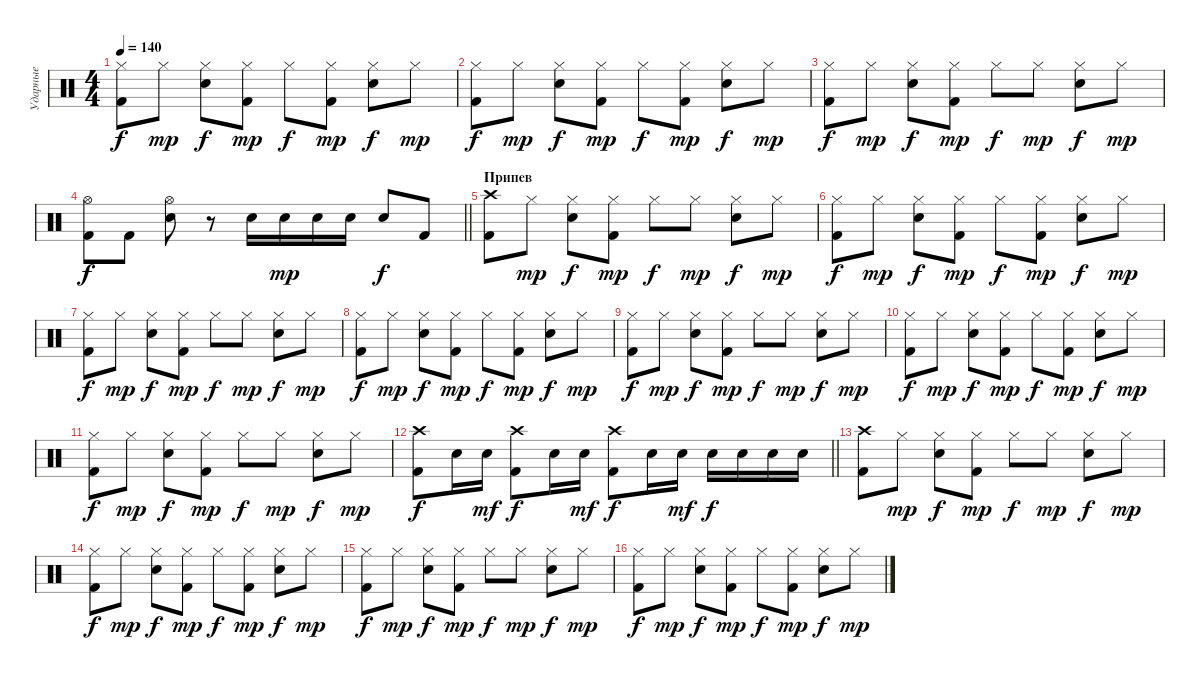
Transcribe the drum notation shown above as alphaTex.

\track ("Ударные" "Ударные") {instrument percussion}
\staff {score}
\articulation defaults
\ts (4 4)
\tempo 140
\clef neutral
\ks c
("Hi-Hat (closed)" "Kick (hit) 2").8{dy f} "Hi-Hat (closed)".8{dy mp} ("Hi-Hat (closed)" "Snare (hit) 2").8{dy f} ("Hi-Hat (closed)" "Kick (hit) 2").8{dy mp} "Hi-Hat (closed)".8{dy f} ("Hi-Hat (closed)" "Kick (hit) 2").8{dy mp} ("Hi-Hat (closed)" "Snare (hit) 2").8{dy f} "Hi-Hat (closed)".8{dy mp} |
("Hi-Hat (closed)" "Kick (hit) 2").8{dy f} "Hi-Hat (closed)".8{dy mp} ("Hi-Hat (closed)" "Snare (hit) 2").8{dy f} ("Hi-Hat (closed)" "Kick (hit) 2").8{dy mp} "Hi-Hat (closed)".8{dy f} ("Hi-Hat (closed)" "Kick (hit) 2").8{dy mp} ("Hi-Hat (closed)" "Snare (hit) 2").8{dy f} "Hi-Hat (closed)".8{dy mp} |
("Hi-Hat (closed)" "Kick (hit) 2").8{dy f} "Hi-Hat (closed)".8{dy mp} ("Hi-Hat (closed)" "Snare (hit) 2").8{dy f} ("Hi-Hat (closed)" "Kick (hit) 2").8{dy mp} "Hi-Hat (closed)".8{dy f} "Hi-Hat (closed)".8{dy mp} ("Hi-Hat (closed)" "Snare (hit) 2").8{dy f} "Hi-Hat (closed)".8{dy mp} |
\barLineRight lightlight
("Hi-Hat (open)" "Kick (hit) 2").8{dy f} "Kick (hit) 2".8 ("Hi-Hat (open)" "Snare (hit) 2").8 r.8 "Snare (hit) 2".16 "Snare (hit) 2".16{dy mp} "Snare (hit) 2".16 "Snare (hit) 2".16 "Snare (hit) 2".8{dy f} "Kick (hit) 2".8 |
\section ("" "Припев")
("Crash high (hit)" "Kick (hit) 2").8 "Hi-Hat (closed)".8{dy mp} ("Hi-Hat (closed)" "Snare (hit) 2").8{dy f} ("Hi-Hat (closed)" "Kick (hit) 2").8{dy mp} "Hi-Hat (closed)".8{dy f} "Hi-Hat (closed)".8{dy mp} ("Hi-Hat (closed)" "Snare (hit) 2").8{dy f} "Hi-Hat (closed)".8{dy mp} |
("Hi-Hat (closed)" "Kick (hit) 2").8{dy f} "Hi-Hat (closed)".8{dy mp} ("Hi-Hat (closed)" "Snare (hit) 2").8{dy f} ("Hi-Hat (closed)" "Kick (hit) 2").8{dy mp} "Hi-Hat (closed)".8{dy f} ("Hi-Hat (closed)" "Kick (hit) 2").8{dy mp} ("Hi-Hat (closed)" "Snare (hit) 2").8{dy f} "Hi-Hat (closed)".8{dy mp} |
("Hi-Hat (closed)" "Kick (hit) 2").8{dy f} "Hi-Hat (closed)".8{dy mp} ("Hi-Hat (closed)" "Snare (hit) 2").8{dy f} ("Hi-Hat (closed)" "Kick (hit) 2").8{dy mp} "Hi-Hat (closed)".8{dy f} "Hi-Hat (closed)".8{dy mp} ("Hi-Hat (closed)" "Snare (hit) 2").8{dy f} "Hi-Hat (closed)".8{dy mp} |
("Hi-Hat (closed)" "Kick (hit) 2").8{dy f} "Hi-Hat (closed)".8{dy mp} ("Hi-Hat (closed)" "Snare (hit) 2").8{dy f} ("Hi-Hat (closed)" "Kick (hit) 2").8{dy mp} "Hi-Hat (closed)".8{dy f} ("Hi-Hat (closed)" "Kick (hit) 2").8{dy mp} ("Hi-Hat (closed)" "Snare (hit) 2").8{dy f} "Hi-Hat (closed)".8{dy mp} |
("Hi-Hat (closed)" "Kick (hit) 2").8{dy f} "Hi-Hat (closed)".8{dy mp} ("Hi-Hat (closed)" "Snare (hit) 2").8{dy f} ("Hi-Hat (closed)" "Kick (hit) 2").8{dy mp} "Hi-Hat (closed)".8{dy f} "Hi-Hat (closed)".8{dy mp} ("Hi-Hat (closed)" "Snare (hit) 2").8{dy f} "Hi-Hat (closed)".8{dy mp} |
("Hi-Hat (closed)" "Kick (hit) 2").8{dy f} "Hi-Hat (closed)".8{dy mp} ("Hi-Hat (closed)" "Snare (hit) 2").8{dy f} ("Hi-Hat (closed)" "Kick (hit) 2").8{dy mp} "Hi-Hat (closed)".8{dy f} ("Hi-Hat (closed)" "Kick (hit) 2").8{dy mp} ("Hi-Hat (closed)" "Snare (hit) 2").8{dy f} "Hi-Hat (closed)".8{dy mp} |
("Hi-Hat (closed)" "Kick (hit) 2").8{dy f} "Hi-Hat (closed)".8{dy mp} ("Hi-Hat (closed)" "Snare (hit) 2").8{dy f} ("Hi-Hat (closed)" "Kick (hit) 2").8{dy mp} "Hi-Hat (closed)".8{dy f} "Hi-Hat (closed)".8{dy mp} ("Hi-Hat (closed)" "Snare (hit) 2").8{dy f} "Hi-Hat (closed)".8{dy mp} |
\barLineRight lightlight
("Crash high (hit)" "Kick (hit) 2").8{dy f} "Snare (hit) 2".16 "Snare (hit) 2".16{dy mf} ("Crash high (hit)" "Kick (hit) 2").8{dy f} "Snare (hit) 2".16 "Snare (hit) 2".16{dy mf} ("Crash high (hit)" "Kick (hit) 2").8{dy f} "Snare (hit) 2".16 "Snare (hit) 2".16{dy mf} "Snare (hit) 2".16{dy f} "Snare (hit) 2".16 "Snare (hit) 2".16 "Snare (hit) 2".16 |
\section ("" "")
("Crash high (hit)" "Kick (hit) 2").8 "Hi-Hat (closed)".8{dy mp} ("Hi-Hat (closed)" "Snare (hit) 2").8{dy f} ("Hi-Hat (closed)" "Kick (hit) 2").8{dy mp} "Hi-Hat (closed)".8{dy f} "Hi-Hat (closed)".8{dy mp} ("Hi-Hat (closed)" "Snare (hit) 2").8{dy f} "Hi-Hat (closed)".8{dy mp} |
("Hi-Hat (closed)" "Kick (hit) 2").8{dy f} "Hi-Hat (closed)".8{dy mp} ("Hi-Hat (closed)" "Snare (hit) 2").8{dy f} ("Hi-Hat (closed)" "Kick (hit) 2").8{dy mp} "Hi-Hat (closed)".8{dy f} ("Hi-Hat (closed)" "Kick (hit) 2").8{dy mp} ("Hi-Hat (closed)" "Snare (hit) 2").8{dy f} "Hi-Hat (closed)".8{dy mp} |
("Hi-Hat (closed)" "Kick (hit) 2").8{dy f} "Hi-Hat (closed)".8{dy mp} ("Hi-Hat (closed)" "Snare (hit) 2").8{dy f} ("Hi-Hat (closed)" "Kick (hit) 2").8{dy mp} "Hi-Hat (closed)".8{dy f} "Hi-Hat (closed)".8{dy mp} ("Hi-Hat (closed)" "Snare (hit) 2").8{dy f} "Hi-Hat (closed)".8{dy mp} |
("Hi-Hat (closed)" "Kick (hit) 2").8{dy f} "Hi-Hat (closed)".8{dy mp} ("Hi-Hat (closed)" "Snare (hit) 2").8{dy f} ("Hi-Hat (closed)" "Kick (hit) 2").8{dy mp} "Hi-Hat (closed)".8{dy f} ("Hi-Hat (closed)" "Kick (hit) 2").8{dy mp} ("Hi-Hat (closed)" "Snare (hit) 2").8{dy f} "Hi-Hat (closed)".8{dy mp}
